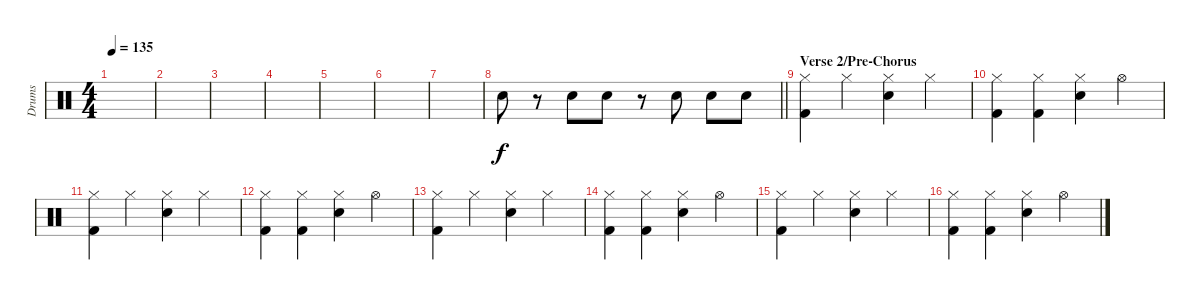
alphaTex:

\track ("Drums" "Drums") {instrument percussion}
\staff {score}
\articulation defaults
\ts (4 4)
\tempo 135
\clef neutral
\ks c
|
|
|
|
|
|
|
\barLineRight lightlight "Snare (hit) 2".8
r.8 "Snare (hit) 2".8 "Snare (hit) 2".8 r.8 "Snare (hit) 2".8 "Snare (hit) 2".8 "Snare (hit) 2".8 |
\section ("" "Verse 2/Pre-Chorus")
("Hi-Hat (closed)" "Kick (hit) 2").4 "Hi-Hat (closed)".4 ("Hi-Hat (closed)" "Snare (hit) 2").4 "Hi-Hat (closed)".4 |
("Hi-Hat (closed)" "Kick (hit) 2").4 ("Hi-Hat (closed)" "Kick (hit) 2").4 ("Hi-Hat (closed)" "Snare (hit) 2").4 "Hi-Hat (open)".4 |
("Hi-Hat (closed)" "Kick (hit) 2").4 "Hi-Hat (closed)".4 ("Hi-Hat (closed)" "Snare (hit) 2").4 "Hi-Hat (closed)".4 |
("Hi-Hat (closed)" "Kick (hit) 2").4 ("Hi-Hat (closed)" "Kick (hit) 2").4 ("Hi-Hat (closed)" "Snare (hit) 2").4 "Hi-Hat (open)".4 |
("Hi-Hat (closed)" "Kick (hit) 2").4 "Hi-Hat (closed)".4 ("Hi-Hat (closed)" "Snare (hit) 2").4 "Hi-Hat (closed)".4 |
("Hi-Hat (closed)" "Kick (hit) 2").4 ("Hi-Hat (closed)" "Kick (hit) 2").4 ("Hi-Hat (closed)" "Snare (hit) 2").4 "Hi-Hat (open)".4 |
("Hi-Hat (closed)" "Kick (hit) 2").4 "Hi-Hat (closed)".4 ("Hi-Hat (closed)" "Snare (hit) 2").4 "Hi-Hat (closed)".4 |
("Hi-Hat (closed)" "Kick (hit) 2").4 ("Hi-Hat (closed)" "Kick (hit) 2").4 ("Hi-Hat (closed)" "Snare (hit) 2").4 "Hi-Hat (open)".4
